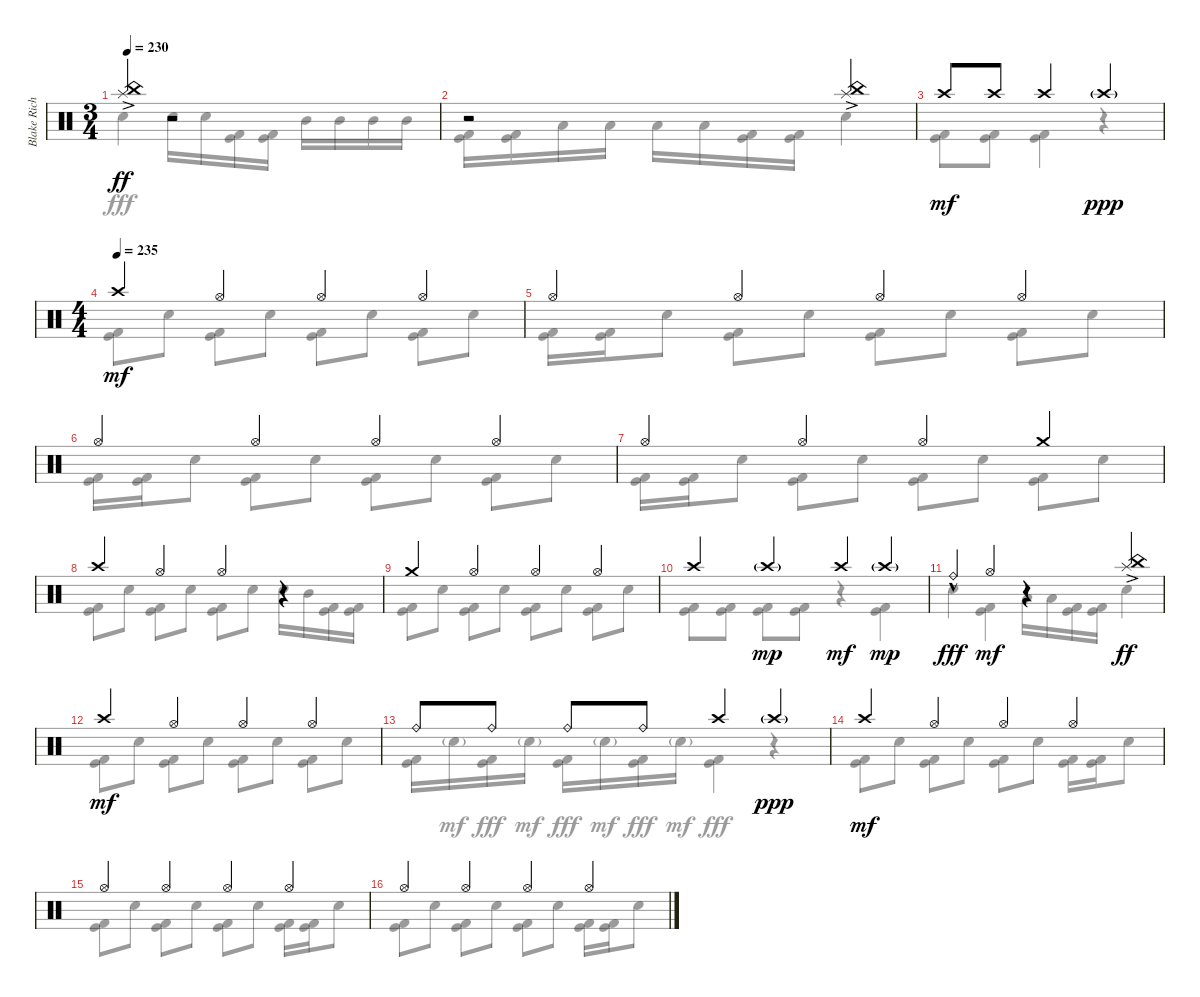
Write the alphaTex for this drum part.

\track ("Blake Richardson Drums" "Blake Rich") {instrument percussion}
\staff {score}
\articulation defaults
\voice
\ts (3 4)
\tempo 230
\clef neutral
\ks c
("China (hit)" "Splash (hit)"{ac}).4{dy ff} r.2 |
r.2 ("China (hit)" "Splash (hit)"{ac}).4 |
"Crash high (hit)".8{dy mf} "Crash high (hit)".8 "Crash high (hit)".4 "Crash high (hit)"{g}.4{dy ppp} |
\ts (4 4)
\tempo (235)
"Crash high (hit)".4{dy mf} "Hi-Hat (open)".4 "Hi-Hat (open)".4 "Hi-Hat (open)".4 |
"Hi-Hat (open)".4 "Hi-Hat (open)".4 "Hi-Hat (open)".4 "Hi-Hat (open)".4 |
"Hi-Hat (open)".4 "Hi-Hat (open)".4 "Hi-Hat (open)".4 "Hi-Hat (open)".4 |
"Hi-Hat (open)".4 "Hi-Hat (open)".4 "Hi-Hat (open)".4 "Crash medium (hit)".4 |
"Crash high (hit)".4 "Hi-Hat (open)".4 "Hi-Hat (open)".4 r.4 |
"Crash medium (hit)".4 "Hi-Hat (open)".4 "Hi-Hat (open)".4 "Hi-Hat (open)".4 |
"Crash high (hit)".4 "Crash high (hit)"{g}.4{dy mp} "Crash high (hit)".4{dy mf} "Crash high (hit)"{g}.4{dy mp} |
"Ride (bell)"{hac}.4{dy fff} "Hi-Hat (open)".4{dy mf} r.4 ("China (hit)" "Splash (hit)"{ac}).4{dy ff} |
"Crash high (hit)".4{dy mf} "Hi-Hat (open)".4 "Hi-Hat (open)".4 "Hi-Hat (open)".4 |
"Ride (bell)".8 "Ride (bell)".8 "Ride (bell)".8 "Ride (bell)".8 "Crash high (hit)".4 "Crash high (hit)"{g}.4{dy ppp} |
"Crash high (hit)".4{dy mf} "Hi-Hat (open)".4 "Hi-Hat (open)".4 "Hi-Hat (open)".4 |
"Hi-Hat (open)".4 "Hi-Hat (open)".4 "Hi-Hat (open)".4 "Hi-Hat (open)".4 |
"Hi-Hat (open)".4 "Hi-Hat (open)".4 "Hi-Hat (open)".4 "Hi-Hat (open)".4
\voice
\clef neutral
\ottava regular
\simile none
\ks c "Electric Snare (hit)".4{dy fff} "Electric Snare (hit)".16 "Electric Snare (hit)".16
("Kick (hit)" "Kick (hit) 2").16 ("Kick (hit)" "Kick (hit) 2").16 "Mid Tom (hit)".16 "Mid Tom (hit)".16 "Mid Tom (hit)".16 "Mid Tom (hit)".16 |
("Kick (hit)" "Kick (hit) 2").16 ("Kick (hit)" "Kick (hit) 2").16 "Low Tom (hit)".16 "Low Tom (hit)".16 "Low Tom (hit)".16 "Low Tom (hit)".16 ("Kick (hit)" "Kick (hit) 2").16 ("Kick (hit)" "Kick (hit) 2").16 "Electric Snare (hit)".4 |
("Kick (hit)" "Kick (hit) 2").8 ("Kick (hit)" "Kick (hit) 2").8 ("Kick (hit)" "Kick (hit) 2").4 r.4 |
("Kick (hit)" "Kick (hit) 2").8 "Electric Snare (hit)".8 ("Kick (hit)" "Kick (hit) 2").8 "Electric Snare (hit)".8 ("Kick (hit)" "Kick (hit) 2").8 "Electric Snare (hit)".8 ("Kick (hit)" "Kick (hit) 2").8 "Electric Snare (hit)".8 |
("Kick (hit)" "Kick (hit) 2").16 ("Kick (hit)" "Kick (hit) 2").16 "Electric Snare (hit)".8 ("Kick (hit)" "Kick (hit) 2").8 "Electric Snare (hit)".8 ("Kick (hit)" "Kick (hit) 2").8 "Electric Snare (hit)".8 ("Kick (hit)" "Kick (hit) 2").8 "Electric Snare (hit)".8 |
("Kick (hit)" "Kick (hit) 2").16 ("Kick (hit)" "Kick (hit) 2").16 "Electric Snare (hit)".8 ("Kick (hit)" "Kick (hit) 2").8 "Electric Snare (hit)".8 ("Kick (hit)" "Kick (hit) 2").8 "Electric Snare (hit)".8 ("Kick (hit)" "Kick (hit) 2").8 "Electric Snare (hit)".8 |
("Kick (hit)" "Kick (hit) 2").16 ("Kick (hit)" "Kick (hit) 2").16 "Electric Snare (hit)".8 ("Kick (hit)" "Kick (hit) 2").8 "Electric Snare (hit)".8 ("Kick (hit)" "Kick (hit) 2").8 "Electric Snare (hit)".8 ("Kick (hit)" "Kick (hit) 2").8 "Electric Snare (hit)".8 |
("Kick (hit)" "Kick (hit) 2").8 "Electric Snare (hit)".8 ("Kick (hit)" "Kick (hit) 2").8 "Electric Snare (hit)".8 ("Kick (hit)" "Kick (hit) 2").8 "Electric Snare (hit)".8 "Electric Snare (hit)".16 "Mid Tom (hit)".16 ("Kick (hit)" "Kick (hit) 2").16 ("Kick (hit)" "Kick (hit) 2").16 |
("Kick (hit)" "Kick (hit) 2").8 "Electric Snare (hit)".8 ("Kick (hit)" "Kick (hit) 2").8 "Electric Snare (hit)".8 ("Kick (hit)" "Kick (hit) 2").8 "Electric Snare (hit)".8 ("Kick (hit)" "Kick (hit) 2").8 "Electric Snare (hit)".8 |
("Kick (hit)" "Kick (hit) 2").8 ("Kick (hit)" "Kick (hit) 2").8 ("Kick (hit)" "Kick (hit) 2").8 ("Kick (hit)" "Kick (hit) 2").8 r.4 ("Kick (hit)" "Kick (hit) 2").4 |
"Electric Snare (hit)".4 ("Kick (hit)" "Kick (hit) 2").4 "Low Tom (hit)".16 "Low Tom (hit)".16 ("Kick (hit)" "Kick (hit) 2").16 ("Kick (hit)" "Kick (hit) 2").16 "Electric Snare (hit)".4 |
("Kick (hit)" "Kick (hit) 2").8 "Electric Snare (hit)".8 ("Kick (hit)" "Kick (hit) 2").8 "Electric Snare (hit)".8 ("Kick (hit)" "Kick (hit) 2").8 "Electric Snare (hit)".8 ("Kick (hit)" "Kick (hit) 2").8 "Electric Snare (hit)".8 |
("Kick (hit)" "Kick (hit) 2").16 "Electric Snare (hit)"{g}.16{dy mf} ("Kick (hit)" "Kick (hit) 2").16{dy fff} "Electric Snare (hit)"{g}.16{dy mf} ("Kick (hit)" "Kick (hit) 2").16{dy fff} "Electric Snare (hit)"{g}.16{dy mf} ("Kick (hit)" "Kick (hit) 2").16{dy fff} "Electric Snare (hit)"{g}.16{dy mf} ("Kick (hit)" "Kick (hit) 2").4{dy fff} r.4 |
("Kick (hit)" "Kick (hit) 2").8 "Electric Snare (hit)".8 ("Kick (hit)" "Kick (hit) 2").8 "Electric Snare (hit)".8 ("Kick (hit)" "Kick (hit) 2").8 "Electric Snare (hit)".8 ("Kick (hit)" "Kick (hit) 2").16 ("Kick (hit)" "Kick (hit) 2").16 "Electric Snare (hit)".8 |
("Kick (hit)" "Kick (hit) 2").8 "Electric Snare (hit)".8 ("Kick (hit)" "Kick (hit) 2").8 "Electric Snare (hit)".8 ("Kick (hit)" "Kick (hit) 2").8 "Electric Snare (hit)".8 ("Kick (hit)" "Kick (hit) 2").16 ("Kick (hit)" "Kick (hit) 2").16 "Electric Snare (hit)".8 |
("Kick (hit)" "Kick (hit) 2").8 "Electric Snare (hit)".8 ("Kick (hit)" "Kick (hit) 2").8 "Electric Snare (hit)".8 ("Kick (hit)" "Kick (hit) 2").8 "Electric Snare (hit)".8 ("Kick (hit)" "Kick (hit) 2").16 ("Kick (hit)" "Kick (hit) 2").16 "Electric Snare (hit)".8
